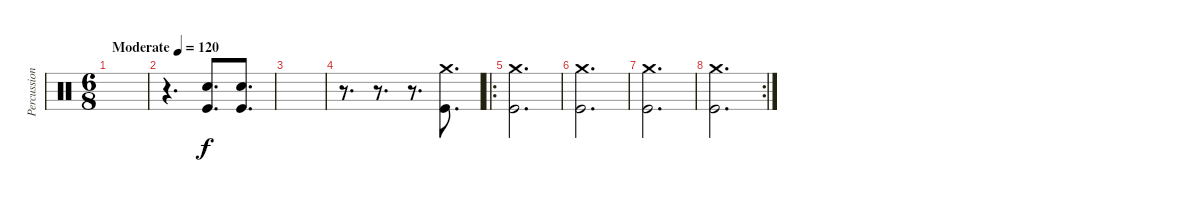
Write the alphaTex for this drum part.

\track ("Percussion" "Percussion") {instrument percussion}
\staff {score}
\articulation defaults
\ts (6 8)
\tempo (120 "Moderate")
\clef neutral
\ks c
|
r.4{d} ("Snare (hit) 2" "Kick (hit)").8{d} ("Snare (hit) 2" "Kick (hit)").8{d} |
|
r.8{d} r.8{d} r.8{d} ("Crash medium (hit)" "Kick (hit)").8{d} |
\ro
("Crash medium (hit)" "Kick (hit)").2{d} |
("Crash medium (hit)" "Kick (hit)").2{d} |
("Crash medium (hit)" "Kick (hit)").2{d} |
\rc 2
("Crash medium (hit)" "Kick (hit)").2{d}
